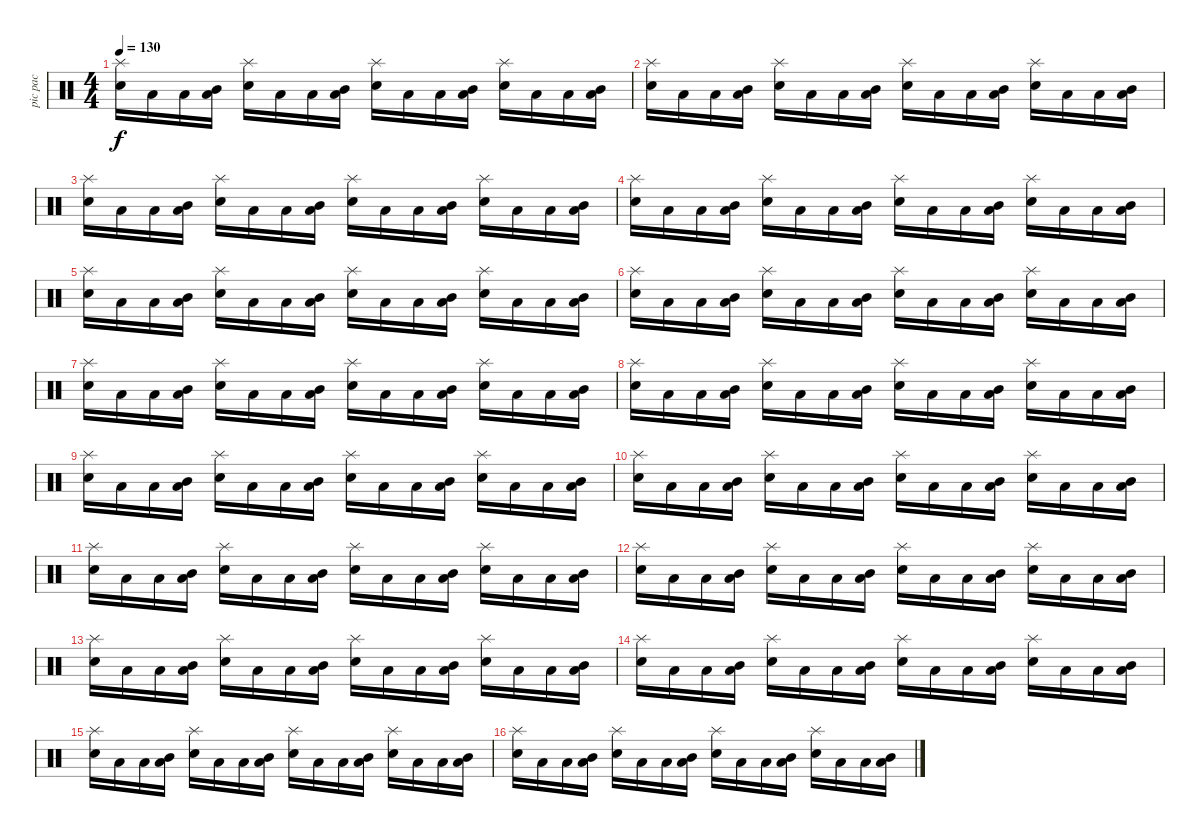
\track ("pic pac" "pic pac") {instrument percussion}
\staff {score}
\articulation defaults
\ts (4 4)
\tempo 130
\clef neutral
\ks c
("Snare (hit) 2" "Splash (hit)").16{dy f} "Low Floor Tom (hit)".16 "Low Floor Tom (hit)".16 ("Low Floor Tom (hit)" "Mid Tom (hit)").16 ("Snare (hit) 2" "Splash (hit)").16 "Low Floor Tom (hit)".16 "Low Floor Tom (hit)".16 ("Low Floor Tom (hit)" "Mid Tom (hit)").16 ("Snare (hit) 2" "Splash (hit)").16 "Low Floor Tom (hit)".16 "Low Floor Tom (hit)".16 ("Low Floor Tom (hit)" "Mid Tom (hit)").16 ("Snare (hit) 2" "Splash (hit)").16 "Low Floor Tom (hit)".16 "Low Floor Tom (hit)".16 ("Low Floor Tom (hit)" "Mid Tom (hit)").16 |
("Snare (hit) 2" "Splash (hit)").16 "Low Floor Tom (hit)".16 "Low Floor Tom (hit)".16 ("Low Floor Tom (hit)" "Mid Tom (hit)").16 ("Snare (hit) 2" "Splash (hit)").16 "Low Floor Tom (hit)".16 "Low Floor Tom (hit)".16 ("Low Floor Tom (hit)" "Mid Tom (hit)").16 ("Snare (hit) 2" "Splash (hit)").16 "Low Floor Tom (hit)".16 "Low Floor Tom (hit)".16 ("Low Floor Tom (hit)" "Mid Tom (hit)").16 ("Snare (hit) 2" "Splash (hit)").16 "Low Floor Tom (hit)".16 "Low Floor Tom (hit)".16 ("Low Floor Tom (hit)" "Mid Tom (hit)").16 |
("Snare (hit) 2" "Splash (hit)").16 "Low Floor Tom (hit)".16 "Low Floor Tom (hit)".16 ("Low Floor Tom (hit)" "Mid Tom (hit)").16 ("Snare (hit) 2" "Splash (hit)").16 "Low Floor Tom (hit)".16 "Low Floor Tom (hit)".16 ("Low Floor Tom (hit)" "Mid Tom (hit)").16 ("Snare (hit) 2" "Splash (hit)").16 "Low Floor Tom (hit)".16 "Low Floor Tom (hit)".16 ("Low Floor Tom (hit)" "Mid Tom (hit)").16 ("Snare (hit) 2" "Splash (hit)").16 "Low Floor Tom (hit)".16 "Low Floor Tom (hit)".16 ("Low Floor Tom (hit)" "Mid Tom (hit)").16 |
("Snare (hit) 2" "Splash (hit)").16 "Low Floor Tom (hit)".16 "Low Floor Tom (hit)".16 ("Low Floor Tom (hit)" "Mid Tom (hit)").16 ("Snare (hit) 2" "Splash (hit)").16 "Low Floor Tom (hit)".16 "Low Floor Tom (hit)".16 ("Low Floor Tom (hit)" "Mid Tom (hit)").16 ("Snare (hit) 2" "Splash (hit)").16 "Low Floor Tom (hit)".16 "Low Floor Tom (hit)".16 ("Low Floor Tom (hit)" "Mid Tom (hit)").16 ("Snare (hit) 2" "Splash (hit)").16 "Low Floor Tom (hit)".16 "Low Floor Tom (hit)".16 ("Low Floor Tom (hit)" "Mid Tom (hit)").16 |
("Snare (hit) 2" "Splash (hit)").16 "Low Floor Tom (hit)".16 "Low Floor Tom (hit)".16 ("Low Floor Tom (hit)" "Mid Tom (hit)").16 ("Snare (hit) 2" "Splash (hit)").16 "Low Floor Tom (hit)".16 "Low Floor Tom (hit)".16 ("Low Floor Tom (hit)" "Mid Tom (hit)").16 ("Snare (hit) 2" "Splash (hit)").16 "Low Floor Tom (hit)".16 "Low Floor Tom (hit)".16 ("Low Floor Tom (hit)" "Mid Tom (hit)").16 ("Snare (hit) 2" "Splash (hit)").16 "Low Floor Tom (hit)".16 "Low Floor Tom (hit)".16 ("Low Floor Tom (hit)" "Mid Tom (hit)").16 |
("Snare (hit) 2" "Splash (hit)").16 "Low Floor Tom (hit)".16 "Low Floor Tom (hit)".16 ("Low Floor Tom (hit)" "Mid Tom (hit)").16 ("Snare (hit) 2" "Splash (hit)").16 "Low Floor Tom (hit)".16 "Low Floor Tom (hit)".16 ("Low Floor Tom (hit)" "Mid Tom (hit)").16 ("Snare (hit) 2" "Splash (hit)").16 "Low Floor Tom (hit)".16 "Low Floor Tom (hit)".16 ("Low Floor Tom (hit)" "Mid Tom (hit)").16 ("Snare (hit) 2" "Splash (hit)").16 "Low Floor Tom (hit)".16 "Low Floor Tom (hit)".16 ("Low Floor Tom (hit)" "Mid Tom (hit)").16 |
("Snare (hit) 2" "Splash (hit)").16 "Low Floor Tom (hit)".16 "Low Floor Tom (hit)".16 ("Low Floor Tom (hit)" "Mid Tom (hit)").16 ("Snare (hit) 2" "Splash (hit)").16 "Low Floor Tom (hit)".16 "Low Floor Tom (hit)".16 ("Low Floor Tom (hit)" "Mid Tom (hit)").16 ("Snare (hit) 2" "Splash (hit)").16 "Low Floor Tom (hit)".16 "Low Floor Tom (hit)".16 ("Low Floor Tom (hit)" "Mid Tom (hit)").16 ("Snare (hit) 2" "Splash (hit)").16 "Low Floor Tom (hit)".16 "Low Floor Tom (hit)".16 ("Low Floor Tom (hit)" "Mid Tom (hit)").16 |
("Snare (hit) 2" "Splash (hit)").16 "Low Floor Tom (hit)".16 "Low Floor Tom (hit)".16 ("Low Floor Tom (hit)" "Mid Tom (hit)").16 ("Snare (hit) 2" "Splash (hit)").16 "Low Floor Tom (hit)".16 "Low Floor Tom (hit)".16 ("Low Floor Tom (hit)" "Mid Tom (hit)").16 ("Snare (hit) 2" "Splash (hit)").16 "Low Floor Tom (hit)".16 "Low Floor Tom (hit)".16 ("Low Floor Tom (hit)" "Mid Tom (hit)").16 ("Snare (hit) 2" "Splash (hit)").16 "Low Floor Tom (hit)".16 "Low Floor Tom (hit)".16 ("Low Floor Tom (hit)" "Mid Tom (hit)").16 |
("Snare (hit) 2" "Splash (hit)").16 "Low Floor Tom (hit)".16 "Low Floor Tom (hit)".16 ("Low Floor Tom (hit)" "Mid Tom (hit)").16 ("Snare (hit) 2" "Splash (hit)").16 "Low Floor Tom (hit)".16 "Low Floor Tom (hit)".16 ("Low Floor Tom (hit)" "Mid Tom (hit)").16 ("Snare (hit) 2" "Splash (hit)").16 "Low Floor Tom (hit)".16 "Low Floor Tom (hit)".16 ("Low Floor Tom (hit)" "Mid Tom (hit)").16 ("Snare (hit) 2" "Splash (hit)").16 "Low Floor Tom (hit)".16 "Low Floor Tom (hit)".16 ("Low Floor Tom (hit)" "Mid Tom (hit)").16 |
("Snare (hit) 2" "Splash (hit)").16 "Low Floor Tom (hit)".16 "Low Floor Tom (hit)".16 ("Low Floor Tom (hit)" "Mid Tom (hit)").16 ("Snare (hit) 2" "Splash (hit)").16 "Low Floor Tom (hit)".16 "Low Floor Tom (hit)".16 ("Low Floor Tom (hit)" "Mid Tom (hit)").16 ("Snare (hit) 2" "Splash (hit)").16 "Low Floor Tom (hit)".16 "Low Floor Tom (hit)".16 ("Low Floor Tom (hit)" "Mid Tom (hit)").16 ("Snare (hit) 2" "Splash (hit)").16 "Low Floor Tom (hit)".16 "Low Floor Tom (hit)".16 ("Low Floor Tom (hit)" "Mid Tom (hit)").16 |
("Snare (hit) 2" "Splash (hit)").16 "Low Floor Tom (hit)".16 "Low Floor Tom (hit)".16 ("Low Floor Tom (hit)" "Mid Tom (hit)").16 ("Snare (hit) 2" "Splash (hit)").16 "Low Floor Tom (hit)".16 "Low Floor Tom (hit)".16 ("Low Floor Tom (hit)" "Mid Tom (hit)").16 ("Snare (hit) 2" "Splash (hit)").16 "Low Floor Tom (hit)".16 "Low Floor Tom (hit)".16 ("Low Floor Tom (hit)" "Mid Tom (hit)").16 ("Snare (hit) 2" "Splash (hit)").16 "Low Floor Tom (hit)".16 "Low Floor Tom (hit)".16 ("Low Floor Tom (hit)" "Mid Tom (hit)").16 |
("Snare (hit) 2" "Splash (hit)").16 "Low Floor Tom (hit)".16 "Low Floor Tom (hit)".16 ("Low Floor Tom (hit)" "Mid Tom (hit)").16 ("Snare (hit) 2" "Splash (hit)").16 "Low Floor Tom (hit)".16 "Low Floor Tom (hit)".16 ("Low Floor Tom (hit)" "Mid Tom (hit)").16 ("Snare (hit) 2" "Splash (hit)").16 "Low Floor Tom (hit)".16 "Low Floor Tom (hit)".16 ("Low Floor Tom (hit)" "Mid Tom (hit)").16 ("Snare (hit) 2" "Splash (hit)").16 "Low Floor Tom (hit)".16 "Low Floor Tom (hit)".16 ("Low Floor Tom (hit)" "Mid Tom (hit)").16 |
("Snare (hit) 2" "Splash (hit)").16 "Low Floor Tom (hit)".16 "Low Floor Tom (hit)".16 ("Low Floor Tom (hit)" "Mid Tom (hit)").16 ("Snare (hit) 2" "Splash (hit)").16 "Low Floor Tom (hit)".16 "Low Floor Tom (hit)".16 ("Low Floor Tom (hit)" "Mid Tom (hit)").16 ("Snare (hit) 2" "Splash (hit)").16 "Low Floor Tom (hit)".16 "Low Floor Tom (hit)".16 ("Low Floor Tom (hit)" "Mid Tom (hit)").16 ("Snare (hit) 2" "Splash (hit)").16 "Low Floor Tom (hit)".16 "Low Floor Tom (hit)".16 ("Low Floor Tom (hit)" "Mid Tom (hit)").16 |
("Snare (hit) 2" "Splash (hit)").16 "Low Floor Tom (hit)".16 "Low Floor Tom (hit)".16 ("Low Floor Tom (hit)" "Mid Tom (hit)").16 ("Snare (hit) 2" "Splash (hit)").16 "Low Floor Tom (hit)".16 "Low Floor Tom (hit)".16 ("Low Floor Tom (hit)" "Mid Tom (hit)").16 ("Snare (hit) 2" "Splash (hit)").16 "Low Floor Tom (hit)".16 "Low Floor Tom (hit)".16 ("Low Floor Tom (hit)" "Mid Tom (hit)").16 ("Snare (hit) 2" "Splash (hit)").16 "Low Floor Tom (hit)".16 "Low Floor Tom (hit)".16 ("Low Floor Tom (hit)" "Mid Tom (hit)").16 |
("Snare (hit) 2" "Splash (hit)").16 "Low Floor Tom (hit)".16 "Low Floor Tom (hit)".16 ("Low Floor Tom (hit)" "Mid Tom (hit)").16 ("Snare (hit) 2" "Splash (hit)").16 "Low Floor Tom (hit)".16 "Low Floor Tom (hit)".16 ("Low Floor Tom (hit)" "Mid Tom (hit)").16 ("Snare (hit) 2" "Splash (hit)").16 "Low Floor Tom (hit)".16 "Low Floor Tom (hit)".16 ("Low Floor Tom (hit)" "Mid Tom (hit)").16 ("Snare (hit) 2" "Splash (hit)").16 "Low Floor Tom (hit)".16 "Low Floor Tom (hit)".16 ("Low Floor Tom (hit)" "Mid Tom (hit)").16 |
("Snare (hit) 2" "Splash (hit)").16 "Low Floor Tom (hit)".16 "Low Floor Tom (hit)".16 ("Low Floor Tom (hit)" "Mid Tom (hit)").16 ("Snare (hit) 2" "Splash (hit)").16 "Low Floor Tom (hit)".16 "Low Floor Tom (hit)".16 ("Low Floor Tom (hit)" "Mid Tom (hit)").16 ("Snare (hit) 2" "Splash (hit)").16 "Low Floor Tom (hit)".16 "Low Floor Tom (hit)".16 ("Low Floor Tom (hit)" "Mid Tom (hit)").16 ("Snare (hit) 2" "Splash (hit)").16 "Low Floor Tom (hit)".16 "Low Floor Tom (hit)".16 ("Low Floor Tom (hit)" "Mid Tom (hit)").16
